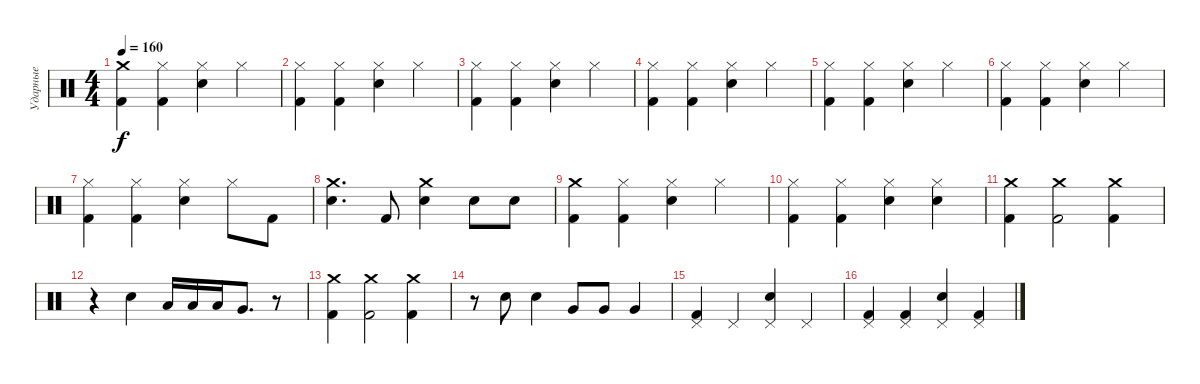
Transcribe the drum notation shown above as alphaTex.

\track ("Ударные" "Ударные") {instrument percussion}
\staff {score}
\articulation defaults
\ts (4 4)
\tempo 160
\clef neutral
\ks c
("Crash medium (hit)" "Kick (hit) 2").4{dy f} ("Hi-Hat (closed)" "Kick (hit) 2").4 ("Electric Snare (hit)" "Hi-Hat (closed)").4 "Hi-Hat (closed)".4 |
("Hi-Hat (closed)" "Kick (hit) 2").4 ("Hi-Hat (closed)" "Kick (hit) 2").4 ("Electric Snare (hit)" "Hi-Hat (closed)").4 "Hi-Hat (closed)".4 |
("Hi-Hat (closed)" "Kick (hit) 2").4 ("Hi-Hat (closed)" "Kick (hit) 2").4 ("Electric Snare (hit)" "Hi-Hat (closed)").4 "Hi-Hat (closed)".4 |
("Hi-Hat (closed)" "Kick (hit) 2").4 ("Hi-Hat (closed)" "Kick (hit) 2").4 ("Electric Snare (hit)" "Hi-Hat (closed)").4 "Hi-Hat (closed)".4 |
("Hi-Hat (closed)" "Kick (hit) 2").4 ("Hi-Hat (closed)" "Kick (hit) 2").4 ("Electric Snare (hit)" "Hi-Hat (closed)").4 "Hi-Hat (closed)".4 |
("Hi-Hat (closed)" "Kick (hit) 2").4 ("Hi-Hat (closed)" "Kick (hit) 2").4 ("Electric Snare (hit)" "Hi-Hat (closed)").4 "Hi-Hat (closed)".4 |
("Hi-Hat (closed)" "Kick (hit) 2").4 ("Hi-Hat (closed)" "Kick (hit) 2").4 ("Electric Snare (hit)" "Hi-Hat (closed)").4 "Hi-Hat (closed)".8 "Kick (hit) 2".8 |
("Crash medium (hit)" "Electric Snare (hit)").4{d} "Kick (hit) 2".8 ("Crash medium (hit)" "Electric Snare (hit)").4 "Electric Snare (hit)".8 "Electric Snare (hit)".8 |
("Crash medium (hit)" "Kick (hit) 2").4 ("Hi-Hat (closed)" "Kick (hit) 2").4 ("Electric Snare (hit)" "Hi-Hat (closed)").4 "Hi-Hat (closed)".4 |
("Hi-Hat (closed)" "Kick (hit) 2").4 ("Hi-Hat (closed)" "Kick (hit) 2").4 ("Electric Snare (hit)" "Hi-Hat (closed)").4 ("Electric Snare (hit)" "Hi-Hat (closed)").4 |
("Crash medium (hit)" "Kick (hit) 2").4 ("Crash medium (hit)" "Kick (hit) 2").2 ("Crash medium (hit)" "Kick (hit) 2").4 |
r.4 "Electric Snare (hit)".4 "Low Tom (hit)".16 "Low Tom (hit)".16 "Low Tom (hit)".16 "Very Low Tom (hit)".8{d} r.8 |
("Crash medium (hit)" "Kick (hit) 2").4 ("Crash medium (hit)" "Kick (hit) 2").2 ("Crash medium (hit)" "Kick (hit) 2").4 |
r.8 "Electric Snare (hit)".8 "Electric Snare (hit)".4 "Very Low Tom (hit)".8 "Very Low Tom (hit)".8 "Very Low Tom (hit)".4 |
("Pedal Hi-Hat (hit)" "Kick (hit) 2").4 "Pedal Hi-Hat (hit)".4 ("Electric Snare (hit)" "Pedal Hi-Hat (hit)").4 "Pedal Hi-Hat (hit)".4 |
("Pedal Hi-Hat (hit)" "Kick (hit) 2").4 ("Pedal Hi-Hat (hit)" "Kick (hit) 2").4 ("Electric Snare (hit)" "Pedal Hi-Hat (hit)").4 ("Pedal Hi-Hat (hit)" "Kick (hit) 2").4
